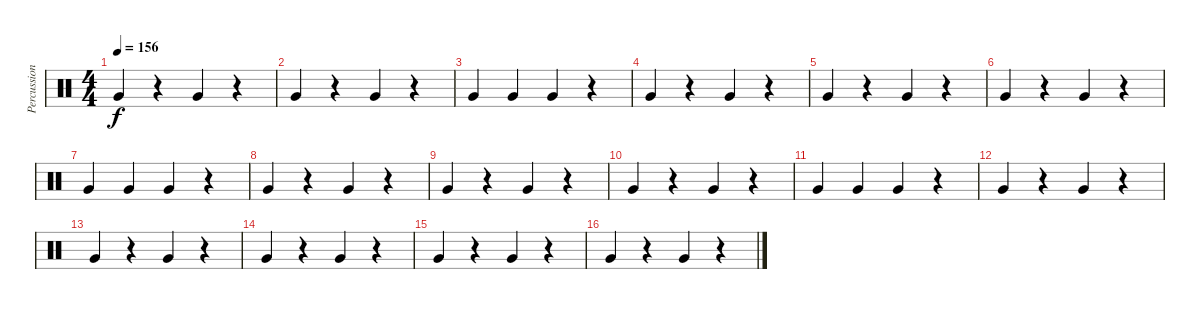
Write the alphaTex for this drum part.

\track ("Percussions" "Percussion") {instrument percussion}
\staff {score}
\articulation defaults
\ts (4 4)
\tempo 156
\clef neutral
\ks c "Very Low Tom (hit)".4{dy f}
r.4 "Very Low Tom (hit)".4 r.4 |
"Very Low Tom (hit)".4 r.4 "Very Low Tom (hit)".4 r.4 |
"Very Low Tom (hit)".4 "Very Low Tom (hit)".4 "Very Low Tom (hit)".4 r.4 |
"Very Low Tom (hit)".4 r.4 "Very Low Tom (hit)".4 r.4 |
"Very Low Tom (hit)".4 r.4 "Very Low Tom (hit)".4 r.4 |
"Very Low Tom (hit)".4 r.4 "Very Low Tom (hit)".4 r.4 |
"Very Low Tom (hit)".4 "Very Low Tom (hit)".4 "Very Low Tom (hit)".4 r.4 |
"Very Low Tom (hit)".4 r.4 "Very Low Tom (hit)".4 r.4 |
"Very Low Tom (hit)".4 r.4 "Very Low Tom (hit)".4 r.4 |
"Very Low Tom (hit)".4 r.4 "Very Low Tom (hit)".4 r.4 |
"Very Low Tom (hit)".4 "Very Low Tom (hit)".4 "Very Low Tom (hit)".4 r.4 |
"Very Low Tom (hit)".4 r.4 "Very Low Tom (hit)".4 r.4 |
"Very Low Tom (hit)".4 r.4 "Very Low Tom (hit)".4 r.4 |
"Very Low Tom (hit)".4 r.4 "Very Low Tom (hit)".4 r.4 |
"Very Low Tom (hit)".4 r.4 "Very Low Tom (hit)".4 r.4 |
"Very Low Tom (hit)".4 r.4 "Very Low Tom (hit)".4 r.4
